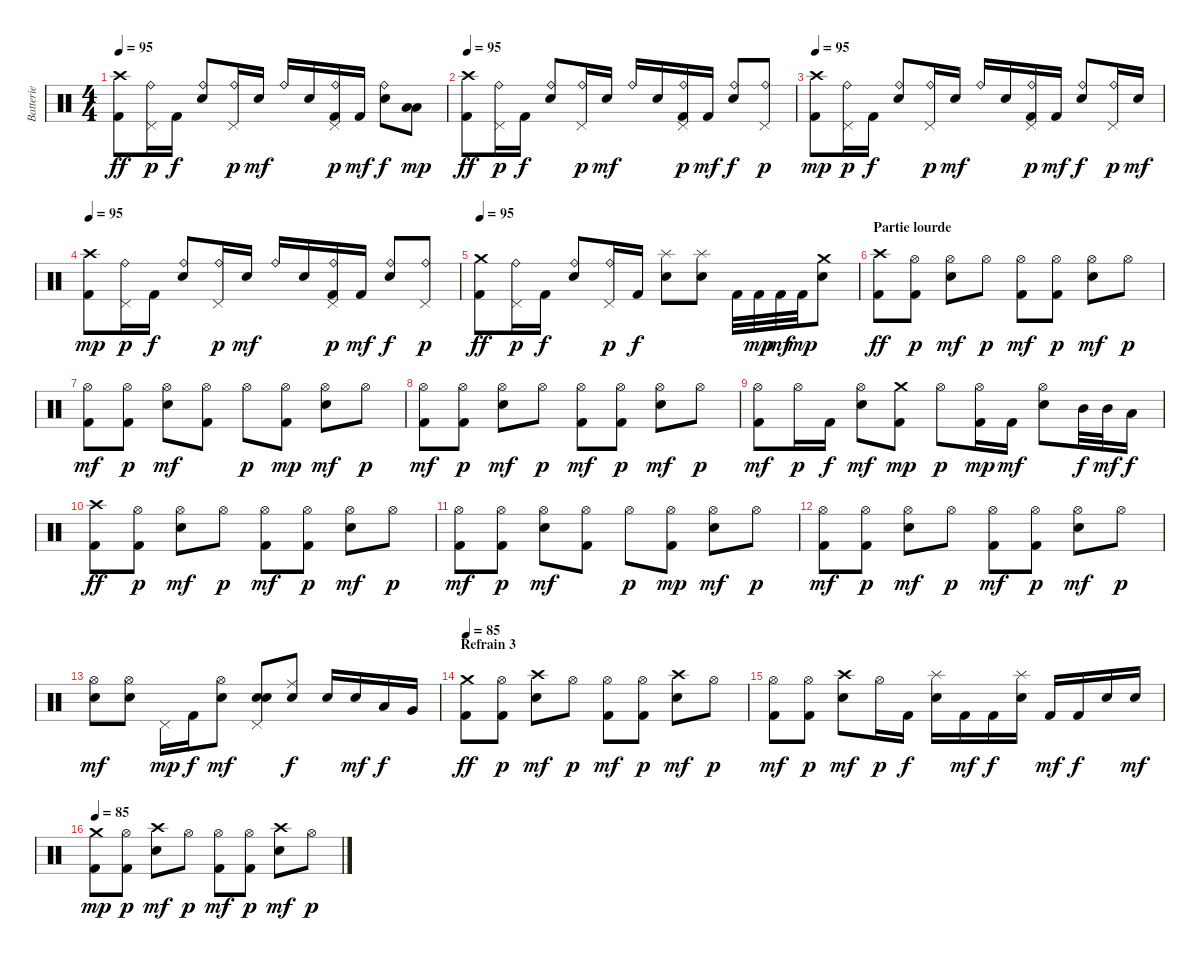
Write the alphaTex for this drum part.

\track ("Batterie" "Batterie") {instrument percussion}
\staff {score}
\articulation defaults
\ts (4 4)
\tempo 95
\clef neutral
\ks c
("Crash high (hit)" "Kick (hit) 2").8{dy ff} ("Ride (bell)" "Pedal Hi-Hat (hit)").16{dy p} "Kick (hit) 2".16{dy f} ("Ride (bell)" "Electric Snare (hit)").8 ("Ride (bell)" "Pedal Hi-Hat (hit)").16{dy p} "Electric Snare (hit)".16{dy mf} "Ride (bell)".16 "Electric Snare (hit)".16 ("Ride (bell)" "Pedal Hi-Hat (hit)" "Kick (hit) 2").16{dy p} "Kick (hit) 2".16{dy mf} ("Ride (bell)" "Electric Snare (hit)").8{dy f} ("Low Tom (hit)" "Low Tom (hit)").8{bd 60 dy mp} |
\tempo 95
("Crash high (hit)" "Kick (hit) 2").8{dy ff} ("Ride (bell)" "Pedal Hi-Hat (hit)").16{dy p} "Kick (hit) 2".16{dy f} ("Ride (bell)" "Electric Snare (hit)").8 ("Ride (bell)" "Pedal Hi-Hat (hit)").16{dy p} "Electric Snare (hit)".16{dy mf} "Ride (bell)".16 "Electric Snare (hit)".16 ("Ride (bell)" "Pedal Hi-Hat (hit)" "Kick (hit) 2").16{dy p} "Kick (hit) 2".16{dy mf} ("Ride (bell)" "Electric Snare (hit)").8{dy f} ("Ride (bell)" "Pedal Hi-Hat (hit)").8{dy p} |
\tempo 95
("Crash high (hit)" "Kick (hit) 2").8{dy mp} ("Ride (bell)" "Pedal Hi-Hat (hit)").16{dy p} "Kick (hit) 2".16{dy f} ("Ride (bell)" "Electric Snare (hit)").8 ("Ride (bell)" "Pedal Hi-Hat (hit)").16{dy p} "Electric Snare (hit)".16{dy mf} "Ride (bell)".16 "Electric Snare (hit)".16 ("Ride (bell)" "Pedal Hi-Hat (hit)" "Kick (hit) 2").16{dy p} "Kick (hit) 2".16{dy mf} ("Ride (bell)" "Electric Snare (hit)").8{dy f} ("Ride (bell)" "Pedal Hi-Hat (hit)").16{dy p} "Electric Snare (hit)".16{dy mf} |
\tempo 95
("Crash high (hit)" "Kick (hit) 2").8{dy mp} ("Ride (bell)" "Pedal Hi-Hat (hit)").16{dy p} "Kick (hit) 2".16{dy f} ("Ride (bell)" "Electric Snare (hit)").8 ("Ride (bell)" "Pedal Hi-Hat (hit)").16{dy p} "Electric Snare (hit)".16{dy mf} "Ride (bell)".16 "Electric Snare (hit)".16 ("Ride (bell)" "Pedal Hi-Hat (hit)" "Kick (hit) 2").16{dy p} "Kick (hit) 2".16{dy mf} ("Ride (bell)" "Electric Snare (hit)").8{dy f} ("Ride (bell)" "Pedal Hi-Hat (hit)").8{dy p} |
\tempo 95
("Crash medium (hit)" "Kick (hit) 2").8{dy ff} ("Ride (bell)" "Pedal Hi-Hat (hit)").16{dy p} "Kick (hit) 2".16{dy f} ("Ride (bell)" "Electric Snare (hit)").8 ("Ride (bell)" "Pedal Hi-Hat (hit)").16{dy p} "Kick (hit) 2".16{dy f} ("Splash (hit)" "Electric Snare (hit)").8 ("Splash (hit)" "Electric Snare (hit)").8 "Kick (hit) 2".32 "Kick (hit) 2".32{dy mp} "Kick (hit) 2".32{dy mf} "Kick (hit) 2".32{dy mp} ("Crash medium (hit)" "Electric Snare (hit)").8 |
\section ("" "Partie lourde")
("Crash high (hit)" "Kick (hit) 2").8{dy ff} ("Hi-Hat (open)" "Kick (hit) 2").8{dy p} ("Hi-Hat (open)" "Electric Snare (hit)").8{dy mf} "Hi-Hat (open)".8{dy p} ("Hi-Hat (open)" "Kick (hit) 2").8{dy mf} ("Hi-Hat (open)" "Kick (hit) 2").8{dy p} ("Hi-Hat (open)" "Electric Snare (hit)").8{dy mf} "Hi-Hat (open)".8{dy p} |
("Hi-Hat (open)" "Kick (hit) 2").8{dy mf} ("Hi-Hat (open)" "Kick (hit) 2").8{dy p} ("Hi-Hat (open)" "Electric Snare (hit)").8{dy mf} ("Hi-Hat (open)" "Kick (hit) 2").8 "Hi-Hat (open)".8{dy p} ("Hi-Hat (open)" "Kick (hit) 2").8{dy mp} ("Hi-Hat (open)" "Electric Snare (hit)").8{dy mf} "Hi-Hat (open)".8{dy p} |
("Hi-Hat (open)" "Kick (hit) 2").8{dy mf} ("Hi-Hat (open)" "Kick (hit) 2").8{dy p} ("Hi-Hat (open)" "Electric Snare (hit)").8{dy mf} "Hi-Hat (open)".8{dy p} ("Hi-Hat (open)" "Kick (hit) 2").8{dy mf} ("Hi-Hat (open)" "Kick (hit) 2").8{dy p} ("Hi-Hat (open)" "Electric Snare (hit)").8{dy mf} "Hi-Hat (open)".8{dy p} |
("Hi-Hat (open)" "Kick (hit) 2").8{dy mf} "Hi-Hat (open)".16{dy p} "Kick (hit) 2".16{dy f} ("Hi-Hat (open)" "Electric Snare (hit)").8{dy mf} ("Crash medium (hit)" "Kick (hit) 2").8{dy mp} "Hi-Hat (open)".8{dy p} ("Hi-Hat (open)" "Kick (hit) 2").16{dy mp} "Kick (hit) 2".16{dy mf} ("Hi-Hat (open)" "Electric Snare (hit)").8 "Mid Tom (hit)".32{dy f} "Mid Tom (hit)".32{dy mf} "Low Tom (hit)".16{dy f} |
("Crash high (hit)" "Kick (hit) 2").8{dy ff} ("Hi-Hat (open)" "Kick (hit) 2").8{dy p} ("Hi-Hat (open)" "Electric Snare (hit)").8{dy mf} "Hi-Hat (open)".8{dy p} ("Hi-Hat (open)" "Kick (hit) 2").8{dy mf} ("Hi-Hat (open)" "Kick (hit) 2").8{dy p} ("Hi-Hat (open)" "Electric Snare (hit)").8{dy mf} "Hi-Hat (open)".8{dy p} |
("Hi-Hat (open)" "Kick (hit) 2").8{dy mf} ("Hi-Hat (open)" "Kick (hit) 2").8{dy p} ("Hi-Hat (open)" "Electric Snare (hit)").8{dy mf} ("Hi-Hat (open)" "Kick (hit) 2").8 "Hi-Hat (open)".8{dy p} ("Hi-Hat (open)" "Kick (hit) 2").8{dy mp} ("Hi-Hat (open)" "Electric Snare (hit)").8{dy mf} "Hi-Hat (open)".8{dy p} |
("Hi-Hat (open)" "Kick (hit) 2").8{dy mf} ("Hi-Hat (open)" "Kick (hit) 2").8{dy p} ("Hi-Hat (open)" "Electric Snare (hit)").8{dy mf} "Hi-Hat (open)".8{dy p} ("Hi-Hat (open)" "Kick (hit) 2").8{dy mf} ("Hi-Hat (open)" "Kick (hit) 2").8{dy p} ("Hi-Hat (open)" "Electric Snare (hit)").8{dy mf} "Hi-Hat (open)".8{dy p} |
("Hi-Hat (open)" "Electric Snare (hit)").8{dy mf} ("Hi-Hat (open)" "Electric Snare (hit)").8 "Pedal Hi-Hat (hit)".16{dy mp} "Kick (hit) 2".16{dy f} ("Hi-Hat (open)" "Electric Snare (hit)").8{dy mf} ("Pedal Hi-Hat (hit)" "Electric Snare (hit)" "Electric Snare (hit)").8{bd 60} ("Ride (middle)" "Electric Snare (hit)").8{dy f} "Electric Snare (hit)".16 "Electric Snare (hit)".16{dy mf} "Low Tom (hit)".16{dy f} "Very Low Tom (hit)".16 |
\section ("" "Refrain 3")
\tempo 85
("Crash medium (hit)" "Kick (hit) 2").8{dy ff} ("Hi-Hat (open)" "Kick (hit) 2").8{dy p} ("Crash high (hit)" "Electric Snare (hit)").8{dy mf} "Hi-Hat (open)".8{dy p} ("Hi-Hat (open)" "Kick (hit) 2").8{dy mf} ("Hi-Hat (open)" "Kick (hit) 2").8{dy p} ("Crash high (hit)" "Electric Snare (hit)").8{dy mf} "Hi-Hat (open)".8{dy p} |
("Hi-Hat (open)" "Kick (hit) 2").8{dy mf} ("Hi-Hat (open)" "Kick (hit) 2").8{dy p} ("Crash high (hit)" "Electric Snare (hit)").8{dy mf} "Hi-Hat (open)".16{dy p} "Kick (hit) 2".16{dy f} ("Splash (hit)" "Electric Snare (hit)").16 "Kick (hit) 2".16{dy mf} "Kick (hit) 2".16{dy f} ("Splash (hit)" "Electric Snare (hit)").16 "Kick (hit) 2".16{dy mf} "Kick (hit) 2".16{dy f} "Electric Snare (hit)".16 "Electric Snare (hit)".16{dy mf} |
\tempo 85
("Crash medium (hit)" "Kick (hit) 2").8{dy mp} ("Hi-Hat (open)" "Kick (hit) 2").8{dy p} ("Crash high (hit)" "Electric Snare (hit)").8{dy mf} "Hi-Hat (open)".8{dy p} ("Hi-Hat (open)" "Kick (hit) 2").8{dy mf} ("Hi-Hat (open)" "Kick (hit) 2").8{dy p} ("Crash high (hit)" "Electric Snare (hit)").8{dy mf} "Hi-Hat (open)".8{dy p}
